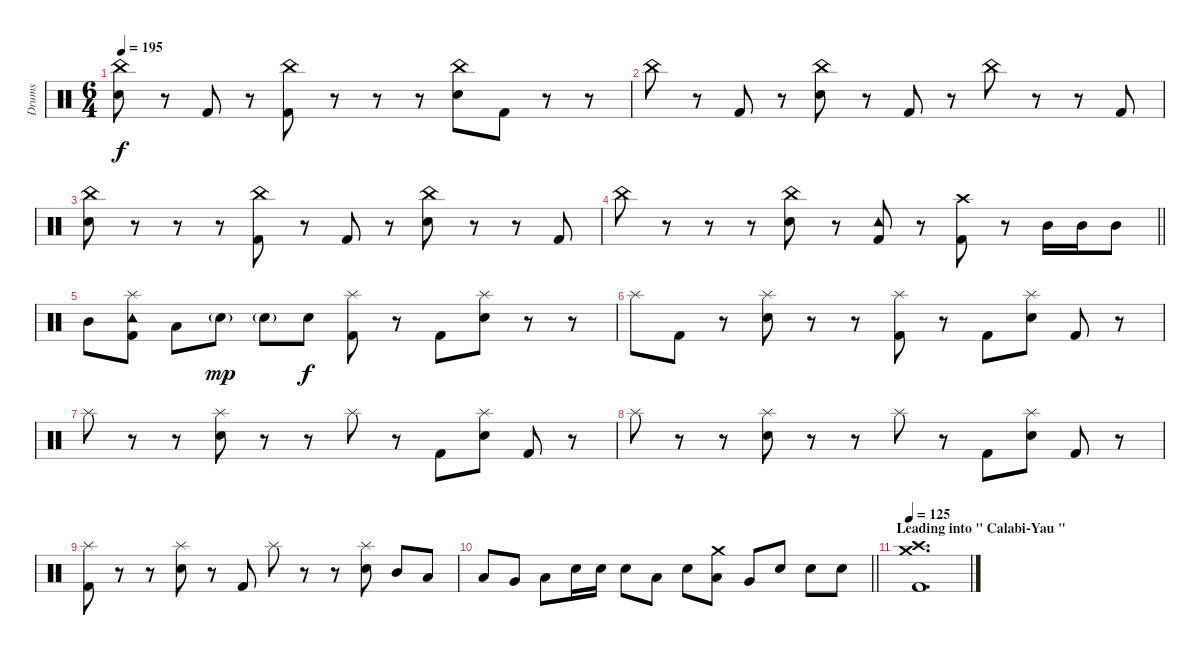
\track ("Drums" "Drums") {instrument percussion}
\staff {score}
\articulation defaults
\ts (6 4)
\tempo 195
\clef neutral
\ks c
("China (hit)" "Electric Snare (hit)").8{dy f} r.8 "Kick (hit) 2".8 r.8 ("China (hit)" "Kick (hit) 2").8 r.8 r.8 r.8 ("China (hit)" "Electric Snare (hit)").8 "Kick (hit) 2".8 r.8 r.8 |
"China (hit)".8 r.8 "Kick (hit) 2".8 r.8 ("China (hit)" "Electric Snare (hit)").8 r.8 "Kick (hit) 2".8 r.8 "China (hit)".8 r.8 r.8 "Kick (hit) 2".8 |
("China (hit)" "Electric Snare (hit)").8 r.8 r.8 r.8 ("China (hit)" "Kick (hit) 2").8 r.8 "Kick (hit) 2".8 r.8 ("China (hit)" "Electric Snare (hit)").8 r.8 r.8 "Kick (hit) 2".8 |
\barLineRight lightlight "China (hit)".8
r.8 r.8 r.8 ("China (hit)" "Electric Snare (hit)").8 r.8 ("Tambourine (hit)" "Kick (hit) 2").8 r.8 ("Crash high (hit)" "Kick (hit) 2").8 r.8 "Mid Tom (hit)".16 "Mid Tom (hit)".16 "Mid Tom (hit)".8 |
\section ("" "")
"Mid Tom (hit)".8 ("Splash (hit)" "Tambourine (hit)" "Kick (hit) 2").8 "Low Tom (hit)".8 "Electric Snare (hit)"{g}.8{dy mp} "Electric Snare (hit)"{g}.8 "Electric Snare (hit)".8{dy f} ("Splash (hit)" "Kick (hit) 2").8 r.8 "Kick (hit) 2".8 ("Splash (hit)" "Electric Snare (hit)").8 r.8 r.8 |
"Splash (hit)".8 "Kick (hit) 2".8 r.8 ("Splash (hit)" "Electric Snare (hit)").8 r.8 r.8 ("Splash (hit)" "Kick (hit) 2").8 r.8 "Kick (hit) 2".8 ("Splash (hit)" "Electric Snare (hit)").8 "Kick (hit) 2".8 r.8 |
"Splash (hit)".8 r.8 r.8 ("Splash (hit)" "Electric Snare (hit)").8 r.8 r.8 "Splash (hit)".8 r.8 "Kick (hit) 2".8 ("Splash (hit)" "Electric Snare (hit)").8 "Kick (hit) 2".8 r.8 |
"Splash (hit)".8 r.8 r.8 ("Splash (hit)" "Electric Snare (hit)").8 r.8 r.8 "Splash (hit)".8 r.8 "Kick (hit) 2".8 ("Splash (hit)" "Electric Snare (hit)").8 "Kick (hit) 2".8 r.8 |
("Splash (hit)" "Kick (hit) 2").8 r.8 r.8 ("Splash (hit)" "Electric Snare (hit)").8 r.8 "Kick (hit) 2".8 "Splash (hit)".8 r.8 r.8 ("Splash (hit)" "Electric Snare (hit)").8 "Mid Tom (hit)".8 "Low Tom (hit)".8 |
\barLineRight lightlight "Low Tom (hit)".8 "Very Low Tom (hit)".8 "Low Floor Tom (hit)".8 "Electric Snare (hit)".16 "Electric Snare (hit)".16 "Electric Snare (hit)".8 "Low Floor Tom (hit)".8 "Electric Snare (hit)".8
("Crash medium (hit)" "Low Tom (hit)").8 "Very Low Tom (hit)".8 "Electric Snare (hit)".8 "Electric Snare (hit)".8 "Electric Snare (hit)".8 |
\section ("" "Leading into \" Calabi-Yau \"")
\tempo 125
("Crash medium (hit)" "Crash high (hit)" "Kick (hit) 2").1{d}
